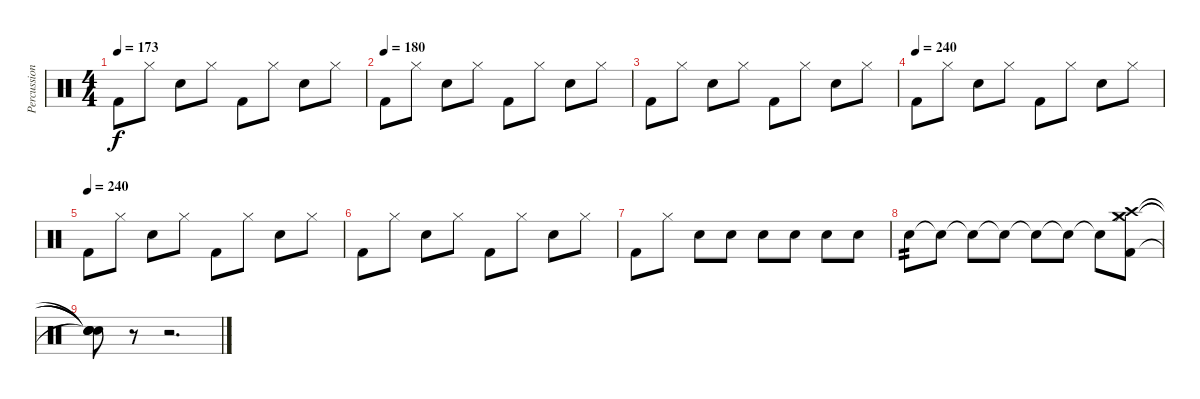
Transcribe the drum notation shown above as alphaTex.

\track ("Percussions" "Percussion") {instrument percussion}
\staff {score}
\articulation defaults
\ts (4 4)
\tempo 173
\clef neutral
\ks c "Kick (hit) 2".8{dy f} "Hi-Hat (closed)".8 "Electric Snare (hit)".8 "Hi-Hat (closed)".8 "Kick (hit) 2".8 "Hi-Hat (closed)".8 "Electric Snare (hit)".8 "Hi-Hat (closed)".8
|
\tempo (180)
"Kick (hit) 2".8 "Hi-Hat (closed)".8 "Electric Snare (hit)".8 "Hi-Hat (closed)".8 "Kick (hit) 2".8 "Hi-Hat (closed)".8 "Electric Snare (hit)".8 "Hi-Hat (closed)".8 |
"Kick (hit) 2".8 "Hi-Hat (closed)".8 "Electric Snare (hit)".8 "Hi-Hat (closed)".8 "Kick (hit) 2".8 "Hi-Hat (closed)".8 "Electric Snare (hit)".8 "Hi-Hat (closed)".8 |
\tempo (240)
"Kick (hit) 2".8 "Hi-Hat (closed)".8 "Electric Snare (hit)".8 "Hi-Hat (closed)".8 "Kick (hit) 2".8 "Hi-Hat (closed)".8 "Electric Snare (hit)".8 "Hi-Hat (closed)".8 |
\tempo (240)
"Kick (hit) 2".8 "Hi-Hat (closed)".8 "Electric Snare (hit)".8 "Hi-Hat (closed)".8 "Kick (hit) 2".8 "Hi-Hat (closed)".8 "Electric Snare (hit)".8 "Hi-Hat (closed)".8 |
"Kick (hit) 2".8 "Hi-Hat (closed)".8 "Electric Snare (hit)".8 "Hi-Hat (closed)".8 "Kick (hit) 2".8 "Hi-Hat (closed)".8 "Electric Snare (hit)".8 "Hi-Hat (closed)".8 |
"Kick (hit) 2".8 "Hi-Hat (closed)".8 "Electric Snare (hit)".8 "Electric Snare (hit)".8 "Electric Snare (hit)".8 "Electric Snare (hit)".8 "Electric Snare (hit)".8 "Electric Snare (hit)".8 |
"Electric Snare (hit)".8{tp 2} "Electric Snare (hit)"{t}.8 "Electric Snare (hit)"{t}.8 "Electric Snare (hit)"{t}.8 "Electric Snare (hit)"{t}.8 "Electric Snare (hit)"{t}.8 "Electric Snare (hit)"{t}.8 ("Crash high (hit)" "Crash medium (hit)" "Hi-Hat (closed)" "Kick (hit) 2").8 |
("Snare (hit)"{t} "Snare (hit)"{t} "Snare (hit)"{t} "Snare (hit)"{t}).8 r.8 r.2{d}
